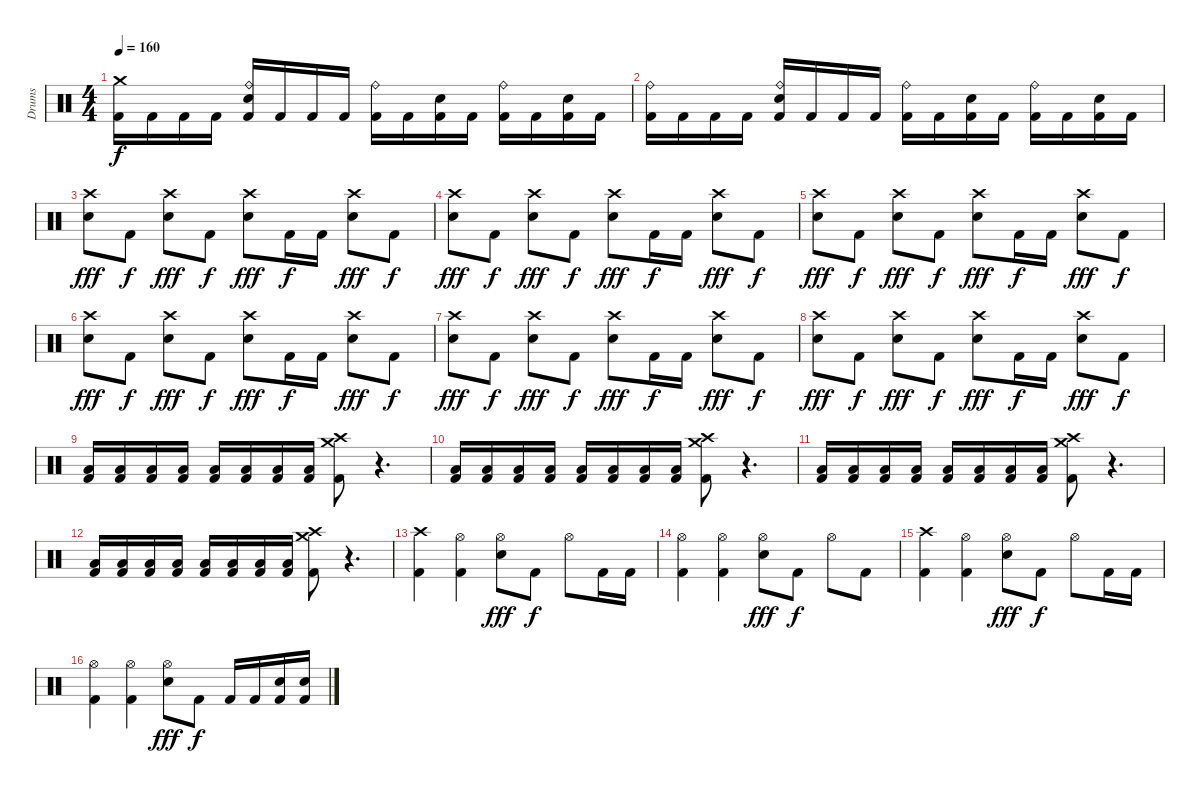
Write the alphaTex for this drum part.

\track ("Drums" "Drums") {instrument percussion}
\staff {score}
\articulation defaults
\ts (4 4)
\tempo 160
\clef neutral
\ks c
("Crash medium (hit)" "Kick (hit) 2").16{dy f} "Kick (hit) 2".16 "Kick (hit) 2".16 "Kick (hit) 2".16 ("Ride (bell)" "Snare (hit) 2" "Kick (hit) 2").16 "Kick (hit) 2".16 "Kick (hit) 2".16 "Kick (hit) 2".16 ("Ride (bell)" "Kick (hit) 2").16 "Kick (hit) 2".16 ("Snare (hit) 2" "Kick (hit) 2").16 "Kick (hit) 2".16 ("Ride (bell)" "Kick (hit) 2").16 "Kick (hit) 2".16 ("Snare (hit) 2" "Kick (hit) 2").16 "Kick (hit) 2".16 |
("Ride (bell)" "Kick (hit) 2").16 "Kick (hit) 2".16 "Kick (hit) 2".16 "Kick (hit) 2".16 ("Ride (bell)" "Snare (hit) 2" "Kick (hit) 2").16 "Kick (hit) 2".16 "Kick (hit) 2".16 "Kick (hit) 2".16 ("Ride (bell)" "Kick (hit) 2").16 "Kick (hit) 2".16 ("Snare (hit) 2" "Kick (hit) 2").16 "Kick (hit) 2".16 ("Ride (bell)" "Kick (hit) 2").16 "Kick (hit) 2".16 ("Snare (hit) 2" "Kick (hit) 2").16 "Kick (hit) 2".16 |
("Crash high (hit)" "Snare (hit) 2").8{dy fff} "Kick (hit) 2".8{dy f} ("Crash high (hit)" "Snare (hit) 2").8{dy fff} "Kick (hit) 2".8{dy f} ("Crash high (hit)" "Snare (hit) 2").8{dy fff} "Kick (hit) 2".16{dy f} "Kick (hit) 2".16 ("Crash high (hit)" "Snare (hit) 2").8{dy fff} "Kick (hit) 2".8{dy f} |
("Crash high (hit)" "Snare (hit) 2").8{dy fff} "Kick (hit) 2".8{dy f} ("Crash high (hit)" "Snare (hit) 2").8{dy fff} "Kick (hit) 2".8{dy f} ("Crash high (hit)" "Snare (hit) 2").8{dy fff} "Kick (hit) 2".16{dy f} "Kick (hit) 2".16 ("Crash high (hit)" "Snare (hit) 2").8{dy fff} "Kick (hit) 2".8{dy f} |
("Crash high (hit)" "Snare (hit) 2").8{dy fff} "Kick (hit) 2".8{dy f} ("Crash high (hit)" "Snare (hit) 2").8{dy fff} "Kick (hit) 2".8{dy f} ("Crash high (hit)" "Snare (hit) 2").8{dy fff} "Kick (hit) 2".16{dy f} "Kick (hit) 2".16 ("Crash high (hit)" "Snare (hit) 2").8{dy fff} "Kick (hit) 2".8{dy f} |
("Crash high (hit)" "Snare (hit) 2").8{dy fff} "Kick (hit) 2".8{dy f} ("Crash high (hit)" "Snare (hit) 2").8{dy fff} "Kick (hit) 2".8{dy f} ("Crash high (hit)" "Snare (hit) 2").8{dy fff} "Kick (hit) 2".16{dy f} "Kick (hit) 2".16 ("Crash high (hit)" "Snare (hit) 2").8{dy fff} "Kick (hit) 2".8{dy f} |
("Crash high (hit)" "Snare (hit) 2").8{dy fff} "Kick (hit) 2".8{dy f} ("Crash high (hit)" "Snare (hit) 2").8{dy fff} "Kick (hit) 2".8{dy f} ("Crash high (hit)" "Snare (hit) 2").8{dy fff} "Kick (hit) 2".16{dy f} "Kick (hit) 2".16 ("Crash high (hit)" "Snare (hit) 2").8{dy fff} "Kick (hit) 2".8{dy f} |
("Crash high (hit)" "Snare (hit) 2").8{dy fff} "Kick (hit) 2".8{dy f} ("Crash high (hit)" "Snare (hit) 2").8{dy fff} "Kick (hit) 2".8{dy f} ("Crash high (hit)" "Snare (hit) 2").8{dy fff} "Kick (hit) 2".16{dy f} "Kick (hit) 2".16 ("Crash high (hit)" "Snare (hit) 2").8{dy fff} "Kick (hit) 2".8{dy f} |
("Low Floor Tom (hit)" "Kick (hit) 2").16 ("Low Floor Tom (hit)" "Kick (hit) 2").16 ("Low Floor Tom (hit)" "Kick (hit) 2").16 ("Low Floor Tom (hit)" "Kick (hit) 2").16 ("Low Floor Tom (hit)" "Kick (hit) 2").16 ("Low Floor Tom (hit)" "Kick (hit) 2").16 ("Low Floor Tom (hit)" "Kick (hit) 2").16 ("Low Floor Tom (hit)" "Kick (hit) 2").16 ("Crash medium (hit)" "Crash high (hit)" "Kick (hit) 2").8 r.4{d} |
("Low Floor Tom (hit)" "Kick (hit) 2").16 ("Low Floor Tom (hit)" "Kick (hit) 2").16 ("Low Floor Tom (hit)" "Kick (hit) 2").16 ("Low Floor Tom (hit)" "Kick (hit) 2").16 ("Low Floor Tom (hit)" "Kick (hit) 2").16 ("Low Floor Tom (hit)" "Kick (hit) 2").16 ("Low Floor Tom (hit)" "Kick (hit) 2").16 ("Low Floor Tom (hit)" "Kick (hit) 2").16 ("Crash medium (hit)" "Crash high (hit)" "Kick (hit) 2").8 r.4{d} |
("Low Floor Tom (hit)" "Kick (hit) 2").16 ("Low Floor Tom (hit)" "Kick (hit) 2").16 ("Low Floor Tom (hit)" "Kick (hit) 2").16 ("Low Floor Tom (hit)" "Kick (hit) 2").16 ("Low Floor Tom (hit)" "Kick (hit) 2").16 ("Low Floor Tom (hit)" "Kick (hit) 2").16 ("Low Floor Tom (hit)" "Kick (hit) 2").16 ("Low Floor Tom (hit)" "Kick (hit) 2").16 ("Crash medium (hit)" "Crash high (hit)" "Kick (hit) 2").8 r.4{d} |
("Low Floor Tom (hit)" "Kick (hit) 2").16 ("Low Floor Tom (hit)" "Kick (hit) 2").16 ("Low Floor Tom (hit)" "Kick (hit) 2").16 ("Low Floor Tom (hit)" "Kick (hit) 2").16 ("Low Floor Tom (hit)" "Kick (hit) 2").16 ("Low Floor Tom (hit)" "Kick (hit) 2").16 ("Low Floor Tom (hit)" "Kick (hit) 2").16 ("Low Floor Tom (hit)" "Kick (hit) 2").16 ("Crash medium (hit)" "Crash high (hit)" "Kick (hit) 2").8 r.4{d} |
("Crash high (hit)" "Kick (hit) 2").4 ("Hi-Hat (open)" "Kick (hit) 2").4 ("Hi-Hat (open)" "Snare (hit) 2").8{dy fff} "Kick (hit) 2".8{dy f} "Hi-Hat (open)".8 "Kick (hit) 2".16 "Kick (hit) 2".16 |
("Hi-Hat (open)" "Kick (hit) 2").4 ("Hi-Hat (open)" "Kick (hit) 2").4 ("Hi-Hat (open)" "Snare (hit) 2").8{dy fff} "Kick (hit) 2".8{dy f} "Hi-Hat (open)".8 "Kick (hit) 2".8 |
("Crash high (hit)" "Kick (hit) 2").4 ("Hi-Hat (open)" "Kick (hit) 2").4 ("Hi-Hat (open)" "Snare (hit) 2").8{dy fff} "Kick (hit) 2".8{dy f} "Hi-Hat (open)".8 "Kick (hit) 2".16 "Kick (hit) 2".16 |
("Hi-Hat (open)" "Kick (hit) 2").4 ("Hi-Hat (open)" "Kick (hit) 2").4 ("Hi-Hat (open)" "Snare (hit) 2").8{dy fff} "Kick (hit) 2".8{dy f} "Kick (hit) 2".16 "Kick (hit) 2".16 ("Snare (hit) 2" "Kick (hit) 2").16 ("Snare (hit) 2" "Kick (hit) 2").16
